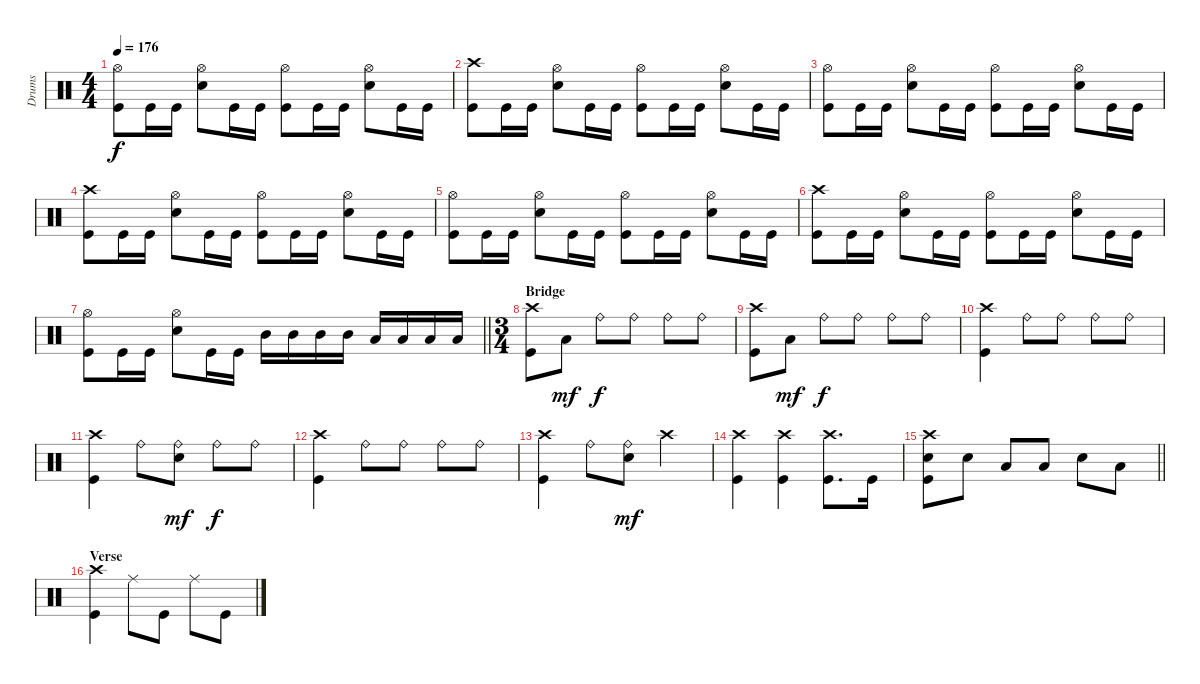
\track ("Drums" "Drums") {instrument percussion}
\staff {score}
\articulation defaults
\ts (4 4)
\tempo 176
\clef neutral
\ks c
("Hi-Hat (open)" "Kick (hit)").8{dy f} "Kick (hit)".16 "Kick (hit)".16 ("Hi-Hat (open)" "Snare (hit) 2").8 "Kick (hit)".16 "Kick (hit)".16 ("Hi-Hat (open)" "Kick (hit)").8 "Kick (hit)".16 "Kick (hit)".16 ("Hi-Hat (open)" "Snare (hit) 2").8 "Kick (hit)".16 "Kick (hit)".16 |
("Crash high (hit)" "Kick (hit)").8 "Kick (hit)".16 "Kick (hit)".16 ("Hi-Hat (open)" "Snare (hit) 2").8 "Kick (hit)".16 "Kick (hit)".16 ("Hi-Hat (open)" "Kick (hit)").8 "Kick (hit)".16 "Kick (hit)".16 ("Hi-Hat (open)" "Snare (hit) 2").8 "Kick (hit)".16 "Kick (hit)".16 |
("Hi-Hat (open)" "Kick (hit)").8 "Kick (hit)".16 "Kick (hit)".16 ("Hi-Hat (open)" "Snare (hit) 2").8 "Kick (hit)".16 "Kick (hit)".16 ("Hi-Hat (open)" "Kick (hit)").8 "Kick (hit)".16 "Kick (hit)".16 ("Hi-Hat (open)" "Snare (hit) 2").8 "Kick (hit)".16 "Kick (hit)".16 |
("Crash high (hit)" "Kick (hit)").8 "Kick (hit)".16 "Kick (hit)".16 ("Hi-Hat (open)" "Snare (hit) 2").8 "Kick (hit)".16 "Kick (hit)".16 ("Hi-Hat (open)" "Kick (hit)").8 "Kick (hit)".16 "Kick (hit)".16 ("Hi-Hat (open)" "Snare (hit) 2").8 "Kick (hit)".16 "Kick (hit)".16 |
("Hi-Hat (open)" "Kick (hit)").8 "Kick (hit)".16 "Kick (hit)".16 ("Hi-Hat (open)" "Snare (hit) 2").8 "Kick (hit)".16 "Kick (hit)".16 ("Hi-Hat (open)" "Kick (hit)").8 "Kick (hit)".16 "Kick (hit)".16 ("Hi-Hat (open)" "Snare (hit) 2").8 "Kick (hit)".16 "Kick (hit)".16 |
("Crash high (hit)" "Kick (hit)").8 "Kick (hit)".16 "Kick (hit)".16 ("Hi-Hat (open)" "Snare (hit) 2").8 "Kick (hit)".16 "Kick (hit)".16 ("Hi-Hat (open)" "Kick (hit)").8 "Kick (hit)".16 "Kick (hit)".16 ("Hi-Hat (open)" "Snare (hit) 2").8 "Kick (hit)".16 "Kick (hit)".16 |
\barLineRight lightlight
("Hi-Hat (open)" "Kick (hit)").8 "Kick (hit)".16 "Kick (hit)".16 ("Hi-Hat (open)" "Snare (hit) 2").8 "Kick (hit)".16 "Kick (hit)".16 "Mid Tom (hit)".16 "Mid Tom (hit)".16 "Mid Tom (hit)".16 "Mid Tom (hit)".16 "Low Tom (hit)".16 "Low Tom (hit)".16 "Low Tom (hit)".16 "Low Tom (hit)".16 |
\ts (3 4)
\section ("" "Bridge")
("Kick (hit)" "Crash high (hit)").8 "Low Floor Tom (hit)".8{dy mf} "Ride (bell)".8{dy f} "Ride (bell)".8 "Ride (bell)".8 "Ride (bell)".8 |
("Kick (hit)" "Crash high (hit)").8 "Low Floor Tom (hit)".8{dy mf} "Ride (bell)".8{dy f} "Ride (bell)".8 "Ride (bell)".8 "Ride (bell)".8 |
("Kick (hit)" "Crash high (hit)").4 "Ride (bell)".8 "Ride (bell)".8 "Ride (bell)".8 "Ride (bell)".8 |
("Kick (hit)" "Crash high (hit)").4 "Ride (bell)".8 ("Ride (bell)" "Snare (hit) 2").8{dy mf} "Ride (bell)".8{dy f} "Ride (bell)".8 |
("Kick (hit)" "Crash high (hit)").4 "Ride (bell)".8 "Ride (bell)".8 "Ride (bell)".8 "Ride (bell)".8 |
("Kick (hit)" "Crash high (hit)").4 "Ride (bell)".8 ("Snare (hit) 2" "Ride (bell)").8{dy mf} "Crash high (hit)".4 |
("Crash high (hit)" "Kick (hit)").4 ("Kick (hit)" "Crash high (hit)").4 ("Crash high (hit)" "Kick (hit)").8{d} "Kick (hit)".16 |
\barLineRight lightlight
("Snare (hit) 2" "Crash high (hit)" "Kick (hit)").8 "Snare (hit) 2".8 "Low Floor Tom (hit)".8 "Low Floor Tom (hit)".8 "Snare (hit) 2".8 "Low Floor Tom (hit)".8 |
\section ("" "Verse")
("Kick (hit)" "Crash high (hit)").4 "Ride (middle)".8 "Kick (hit)".8 "Ride (middle)".8 "Kick (hit)".8
